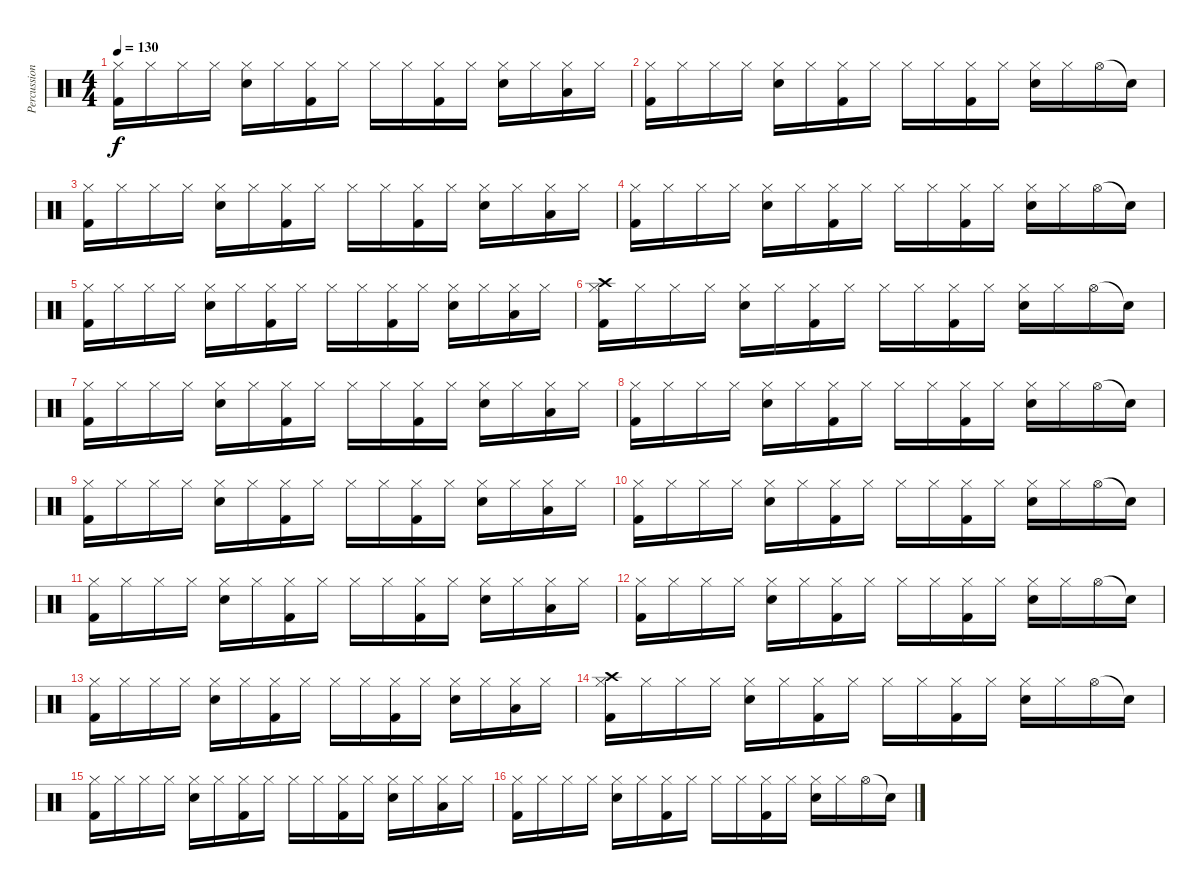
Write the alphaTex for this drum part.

\track ("Percussion" "Percussion") {instrument percussion}
\staff {score}
\articulation defaults
\ts (4 4)
\tempo 130
\clef neutral
\ks c
("Hi-Hat (closed)" "Kick (hit) 2").16{dy f} "Hi-Hat (closed)".16 "Hi-Hat (closed)".16 "Hi-Hat (closed)".16 ("Hi-Hat (closed)" "Snare (hit) 2").16 "Hi-Hat (closed)".16 ("Hi-Hat (closed)" "Kick (hit) 2").16 "Hi-Hat (closed)".16 "Hi-Hat (closed)".16 "Hi-Hat (closed)".16 ("Hi-Hat (closed)" "Kick (hit) 2").16 "Hi-Hat (closed)".16 ("Hi-Hat (closed)" "Snare (hit) 2").16 "Hi-Hat (closed)".16 ("Hi-Hat (closed)" "Low Tom (hit)").16 "Hi-Hat (closed)".16 |
("Hi-Hat (closed)" "Kick (hit) 2").16 "Hi-Hat (closed)".16 "Hi-Hat (closed)".16 "Hi-Hat (closed)".16 ("Hi-Hat (closed)" "Snare (hit) 2").16 "Hi-Hat (closed)".16 ("Hi-Hat (closed)" "Kick (hit) 2").16 "Hi-Hat (closed)".16 "Hi-Hat (closed)".16 "Hi-Hat (closed)".16 ("Hi-Hat (closed)" "Kick (hit) 2").16 "Hi-Hat (closed)".16 ("Hi-Hat (closed)" "Snare (hit) 2").16 "Hi-Hat (closed)".16 "Hi-Hat (open)".16 "Snare (hit)"{t}.16 |
("Hi-Hat (closed)" "Kick (hit) 2").16 "Hi-Hat (closed)".16 "Hi-Hat (closed)".16 "Hi-Hat (closed)".16 ("Hi-Hat (closed)" "Snare (hit) 2").16 "Hi-Hat (closed)".16 ("Hi-Hat (closed)" "Kick (hit) 2").16 "Hi-Hat (closed)".16 "Hi-Hat (closed)".16 "Hi-Hat (closed)".16 ("Hi-Hat (closed)" "Kick (hit) 2").16 "Hi-Hat (closed)".16 ("Hi-Hat (closed)" "Snare (hit) 2").16 "Hi-Hat (closed)".16 ("Hi-Hat (closed)" "Low Tom (hit)").16 "Hi-Hat (closed)".16 |
("Hi-Hat (closed)" "Kick (hit) 2").16 "Hi-Hat (closed)".16 "Hi-Hat (closed)".16 "Hi-Hat (closed)".16 ("Hi-Hat (closed)" "Snare (hit) 2").16 "Hi-Hat (closed)".16 ("Hi-Hat (closed)" "Kick (hit) 2").16 "Hi-Hat (closed)".16 "Hi-Hat (closed)".16 "Hi-Hat (closed)".16 ("Hi-Hat (closed)" "Kick (hit) 2").16 "Hi-Hat (closed)".16 ("Hi-Hat (closed)" "Snare (hit) 2").16 "Hi-Hat (closed)".16 "Hi-Hat (open)".16 "Snare (hit)"{t}.16 |
("Hi-Hat (closed)" "Kick (hit) 2").16 "Hi-Hat (closed)".16 "Hi-Hat (closed)".16 "Hi-Hat (closed)".16 ("Hi-Hat (closed)" "Snare (hit) 2").16 "Hi-Hat (closed)".16 ("Hi-Hat (closed)" "Kick (hit) 2").16 "Hi-Hat (closed)".16 "Hi-Hat (closed)".16 "Hi-Hat (closed)".16 ("Hi-Hat (closed)" "Kick (hit) 2").16 "Hi-Hat (closed)".16 ("Hi-Hat (closed)" "Snare (hit) 2").16 "Hi-Hat (closed)".16 ("Hi-Hat (closed)" "Low Tom (hit)").16 "Hi-Hat (closed)".16 |
("Hi-Hat (closed)" "Crash high (hit)" "Kick (hit) 2").16 "Hi-Hat (closed)".16 "Hi-Hat (closed)".16 "Hi-Hat (closed)".16 ("Hi-Hat (closed)" "Snare (hit) 2").16 "Hi-Hat (closed)".16 ("Hi-Hat (closed)" "Kick (hit) 2").16 "Hi-Hat (closed)".16 "Hi-Hat (closed)".16 "Hi-Hat (closed)".16 ("Hi-Hat (closed)" "Kick (hit) 2").16 "Hi-Hat (closed)".16 ("Hi-Hat (closed)" "Snare (hit) 2").16 "Hi-Hat (closed)".16 "Hi-Hat (open)".16 "Snare (hit)"{t}.16 |
("Hi-Hat (closed)" "Kick (hit) 2").16 "Hi-Hat (closed)".16 "Hi-Hat (closed)".16 "Hi-Hat (closed)".16 ("Hi-Hat (closed)" "Snare (hit) 2").16 "Hi-Hat (closed)".16 ("Hi-Hat (closed)" "Kick (hit) 2").16 "Hi-Hat (closed)".16 "Hi-Hat (closed)".16 "Hi-Hat (closed)".16 ("Hi-Hat (closed)" "Kick (hit) 2").16 "Hi-Hat (closed)".16 ("Hi-Hat (closed)" "Snare (hit) 2").16 "Hi-Hat (closed)".16 ("Hi-Hat (closed)" "Low Tom (hit)").16 "Hi-Hat (closed)".16 |
("Hi-Hat (closed)" "Kick (hit) 2").16 "Hi-Hat (closed)".16 "Hi-Hat (closed)".16 "Hi-Hat (closed)".16 ("Hi-Hat (closed)" "Snare (hit) 2").16 "Hi-Hat (closed)".16 ("Hi-Hat (closed)" "Kick (hit) 2").16 "Hi-Hat (closed)".16 "Hi-Hat (closed)".16 "Hi-Hat (closed)".16 ("Hi-Hat (closed)" "Kick (hit) 2").16 "Hi-Hat (closed)".16 ("Hi-Hat (closed)" "Snare (hit) 2").16 "Hi-Hat (closed)".16 "Hi-Hat (open)".16 "Snare (hit)"{t}.16 |
("Hi-Hat (closed)" "Kick (hit) 2").16 "Hi-Hat (closed)".16 "Hi-Hat (closed)".16 "Hi-Hat (closed)".16 ("Hi-Hat (closed)" "Snare (hit) 2").16 "Hi-Hat (closed)".16 ("Hi-Hat (closed)" "Kick (hit) 2").16 "Hi-Hat (closed)".16 "Hi-Hat (closed)".16 "Hi-Hat (closed)".16 ("Hi-Hat (closed)" "Kick (hit) 2").16 "Hi-Hat (closed)".16 ("Hi-Hat (closed)" "Snare (hit) 2").16 "Hi-Hat (closed)".16 ("Hi-Hat (closed)" "Low Tom (hit)").16 "Hi-Hat (closed)".16 |
("Hi-Hat (closed)" "Kick (hit) 2").16 "Hi-Hat (closed)".16 "Hi-Hat (closed)".16 "Hi-Hat (closed)".16 ("Hi-Hat (closed)" "Snare (hit) 2").16 "Hi-Hat (closed)".16 ("Hi-Hat (closed)" "Kick (hit) 2").16 "Hi-Hat (closed)".16 "Hi-Hat (closed)".16 "Hi-Hat (closed)".16 ("Hi-Hat (closed)" "Kick (hit) 2").16 "Hi-Hat (closed)".16 ("Hi-Hat (closed)" "Snare (hit) 2").16 "Hi-Hat (closed)".16 "Hi-Hat (open)".16 "Snare (hit)"{t}.16 |
("Hi-Hat (closed)" "Kick (hit) 2").16 "Hi-Hat (closed)".16 "Hi-Hat (closed)".16 "Hi-Hat (closed)".16 ("Hi-Hat (closed)" "Snare (hit) 2").16 "Hi-Hat (closed)".16 ("Hi-Hat (closed)" "Kick (hit) 2").16 "Hi-Hat (closed)".16 "Hi-Hat (closed)".16 "Hi-Hat (closed)".16 ("Hi-Hat (closed)" "Kick (hit) 2").16 "Hi-Hat (closed)".16 ("Hi-Hat (closed)" "Snare (hit) 2").16 "Hi-Hat (closed)".16 ("Hi-Hat (closed)" "Low Tom (hit)").16 "Hi-Hat (closed)".16 |
("Hi-Hat (closed)" "Kick (hit) 2").16 "Hi-Hat (closed)".16 "Hi-Hat (closed)".16 "Hi-Hat (closed)".16 ("Hi-Hat (closed)" "Snare (hit) 2").16 "Hi-Hat (closed)".16 ("Hi-Hat (closed)" "Kick (hit) 2").16 "Hi-Hat (closed)".16 "Hi-Hat (closed)".16 "Hi-Hat (closed)".16 ("Hi-Hat (closed)" "Kick (hit) 2").16 "Hi-Hat (closed)".16 ("Hi-Hat (closed)" "Snare (hit) 2").16 "Hi-Hat (closed)".16 "Hi-Hat (open)".16 "Snare (hit)"{t}.16 |
("Hi-Hat (closed)" "Kick (hit) 2").16 "Hi-Hat (closed)".16 "Hi-Hat (closed)".16 "Hi-Hat (closed)".16 ("Hi-Hat (closed)" "Snare (hit) 2").16 "Hi-Hat (closed)".16 ("Hi-Hat (closed)" "Kick (hit) 2").16 "Hi-Hat (closed)".16 "Hi-Hat (closed)".16 "Hi-Hat (closed)".16 ("Hi-Hat (closed)" "Kick (hit) 2").16 "Hi-Hat (closed)".16 ("Hi-Hat (closed)" "Snare (hit) 2").16 "Hi-Hat (closed)".16 ("Hi-Hat (closed)" "Low Tom (hit)").16 "Hi-Hat (closed)".16 |
("Hi-Hat (closed)" "Crash high (hit)" "Kick (hit) 2").16 "Hi-Hat (closed)".16 "Hi-Hat (closed)".16 "Hi-Hat (closed)".16 ("Hi-Hat (closed)" "Snare (hit) 2").16 "Hi-Hat (closed)".16 ("Hi-Hat (closed)" "Kick (hit) 2").16 "Hi-Hat (closed)".16 "Hi-Hat (closed)".16 "Hi-Hat (closed)".16 ("Hi-Hat (closed)" "Kick (hit) 2").16 "Hi-Hat (closed)".16 ("Hi-Hat (closed)" "Snare (hit) 2").16 "Hi-Hat (closed)".16 "Hi-Hat (open)".16 "Snare (hit)"{t}.16 |
("Hi-Hat (closed)" "Kick (hit) 2").16 "Hi-Hat (closed)".16 "Hi-Hat (closed)".16 "Hi-Hat (closed)".16 ("Hi-Hat (closed)" "Snare (hit) 2").16 "Hi-Hat (closed)".16 ("Hi-Hat (closed)" "Kick (hit) 2").16 "Hi-Hat (closed)".16 "Hi-Hat (closed)".16 "Hi-Hat (closed)".16 ("Hi-Hat (closed)" "Kick (hit) 2").16 "Hi-Hat (closed)".16 ("Hi-Hat (closed)" "Snare (hit) 2").16 "Hi-Hat (closed)".16 ("Hi-Hat (closed)" "Low Tom (hit)").16 "Hi-Hat (closed)".16 |
("Hi-Hat (closed)" "Kick (hit) 2").16 "Hi-Hat (closed)".16 "Hi-Hat (closed)".16 "Hi-Hat (closed)".16 ("Hi-Hat (closed)" "Snare (hit) 2").16 "Hi-Hat (closed)".16 ("Hi-Hat (closed)" "Kick (hit) 2").16 "Hi-Hat (closed)".16 "Hi-Hat (closed)".16 "Hi-Hat (closed)".16 ("Hi-Hat (closed)" "Kick (hit) 2").16 "Hi-Hat (closed)".16 ("Hi-Hat (closed)" "Snare (hit) 2").16 "Hi-Hat (closed)".16 "Hi-Hat (open)".16 "Snare (hit)"{t}.16
